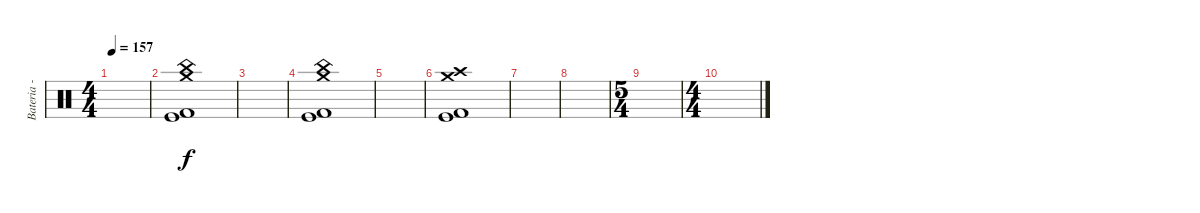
\track ("Bateria - Optional" "Bateria - ") {instrument percussion}
\staff {score}
\articulation defaults
\ts (4 4)
\tempo 157
\clef neutral
\ks c
|
("China (hit)" "Crash medium (hit)" "Kick (hit)" "Kick (hit) 2").1 |
|
("China (hit)" "Crash medium (hit)" "Kick (hit)" "Kick (hit) 2").1 |
|
("Crash medium (hit)" "Crash high (hit)" "Kick (hit)" "Kick (hit) 2").1 |
|
|
\ts (5 4)
|
\ts (4 4)
